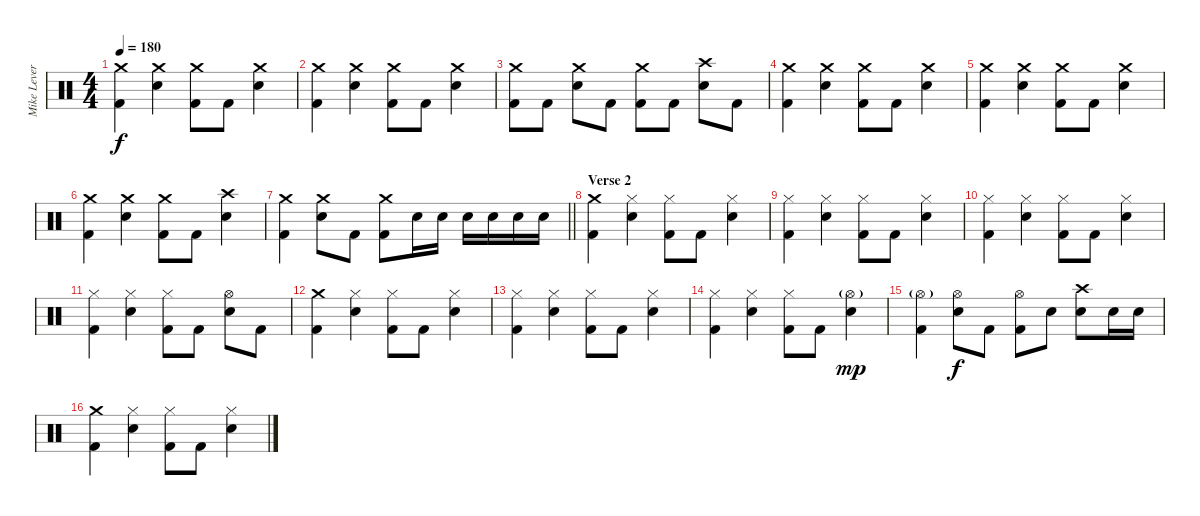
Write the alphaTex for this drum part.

\track ("Mike Leverence - Drums" "Mike Lever") {instrument percussion}
\staff {score}
\articulation defaults
\ts (4 4)
\tempo 180
\clef neutral
\ks c
("Crash medium (hit)" "Kick (hit) 2").4{dy f} ("Crash medium (hit)" "Electric Snare (hit)").4 ("Crash medium (hit)" "Kick (hit) 2").8 "Kick (hit) 2".8 ("Crash medium (hit)" "Electric Snare (hit)").4 |
("Crash medium (hit)" "Kick (hit) 2").4 ("Crash medium (hit)" "Electric Snare (hit)").4 ("Crash medium (hit)" "Kick (hit) 2").8 "Kick (hit) 2".8 ("Crash medium (hit)" "Electric Snare (hit)").4 |
("Crash medium (hit)" "Kick (hit) 2").8 "Kick (hit) 2".8 ("Crash medium (hit)" "Electric Snare (hit)").8 "Kick (hit) 2".8 ("Crash medium (hit)" "Kick (hit) 2").8 "Kick (hit) 2".8 ("Crash high (hit)" "Electric Snare (hit)").8 "Kick (hit) 2".8 |
("Crash medium (hit)" "Kick (hit) 2").4 ("Crash medium (hit)" "Electric Snare (hit)").4 ("Crash medium (hit)" "Kick (hit) 2").8 "Kick (hit) 2".8 ("Crash medium (hit)" "Electric Snare (hit)").4 |
("Crash medium (hit)" "Kick (hit) 2").4 ("Crash medium (hit)" "Electric Snare (hit)").4 ("Crash medium (hit)" "Kick (hit) 2").8 "Kick (hit) 2".8 ("Crash medium (hit)" "Electric Snare (hit)").4 |
("Crash medium (hit)" "Kick (hit) 2").4 ("Crash medium (hit)" "Electric Snare (hit)").4 ("Crash medium (hit)" "Kick (hit) 2").8 "Kick (hit) 2".8 ("Crash high (hit)" "Electric Snare (hit)").4 |
\barLineRight lightlight
("Crash medium (hit)" "Kick (hit) 2").4 ("Crash medium (hit)" "Electric Snare (hit)").8 "Kick (hit) 2".8 ("Crash medium (hit)" "Kick (hit) 2").8 "Electric Snare (hit)".16 "Electric Snare (hit)".16 "Electric Snare (hit)".16 "Electric Snare (hit)".16 "Electric Snare (hit)".16 "Electric Snare (hit)".16 |
\section ("" "Verse 2")
("Crash medium (hit)" "Kick (hit) 2").4 ("Hi-Hat (closed)" "Electric Snare (hit)").4 ("Hi-Hat (closed)" "Kick (hit) 2").8 "Kick (hit) 2".8 ("Hi-Hat (closed)" "Electric Snare (hit)").4 |
("Hi-Hat (closed)" "Kick (hit) 2").4 ("Hi-Hat (closed)" "Electric Snare (hit)").4 ("Hi-Hat (closed)" "Kick (hit) 2").8 "Kick (hit) 2".8 ("Hi-Hat (closed)" "Electric Snare (hit)").4 |
("Hi-Hat (closed)" "Kick (hit) 2").4 ("Hi-Hat (closed)" "Electric Snare (hit)").4 ("Hi-Hat (closed)" "Kick (hit) 2").8 "Kick (hit) 2".8 ("Hi-Hat (closed)" "Electric Snare (hit)").4 |
("Hi-Hat (closed)" "Kick (hit) 2").4 ("Hi-Hat (closed)" "Electric Snare (hit)").4 ("Hi-Hat (closed)" "Kick (hit) 2").8 "Kick (hit) 2".8 ("Hi-Hat (open)" "Electric Snare (hit)").8 "Kick (hit) 2".8 |
("Crash medium (hit)" "Kick (hit) 2").4 ("Hi-Hat (closed)" "Electric Snare (hit)").4 ("Hi-Hat (closed)" "Kick (hit) 2").8 "Kick (hit) 2".8 ("Hi-Hat (closed)" "Electric Snare (hit)").4 |
("Hi-Hat (closed)" "Kick (hit) 2").4 ("Hi-Hat (closed)" "Electric Snare (hit)").4 ("Hi-Hat (closed)" "Kick (hit) 2").8 "Kick (hit) 2".8 ("Hi-Hat (closed)" "Electric Snare (hit)").4 |
("Hi-Hat (closed)" "Kick (hit) 2").4 ("Hi-Hat (closed)" "Electric Snare (hit)").4 ("Hi-Hat (closed)" "Kick (hit) 2").8 "Kick (hit) 2".8 ("Hi-Hat (open)"{g} "Electric Snare (hit)").4{dy mp} |
("Hi-Hat (open)"{g} "Kick (hit) 2").4 ("Hi-Hat (open)" "Electric Snare (hit)").8{dy f} "Kick (hit) 2".8 ("Hi-Hat (open)" "Kick (hit) 2").8 "Electric Snare (hit)".8 ("Crash high (hit)" "Electric Snare (hit)").8 "Electric Snare (hit)".16 "Electric Snare (hit)".16 |
("Crash medium (hit)" "Kick (hit) 2").4 ("Hi-Hat (closed)" "Electric Snare (hit)").4 ("Hi-Hat (closed)" "Kick (hit) 2").8 "Kick (hit) 2".8 ("Hi-Hat (closed)" "Electric Snare (hit)").4
